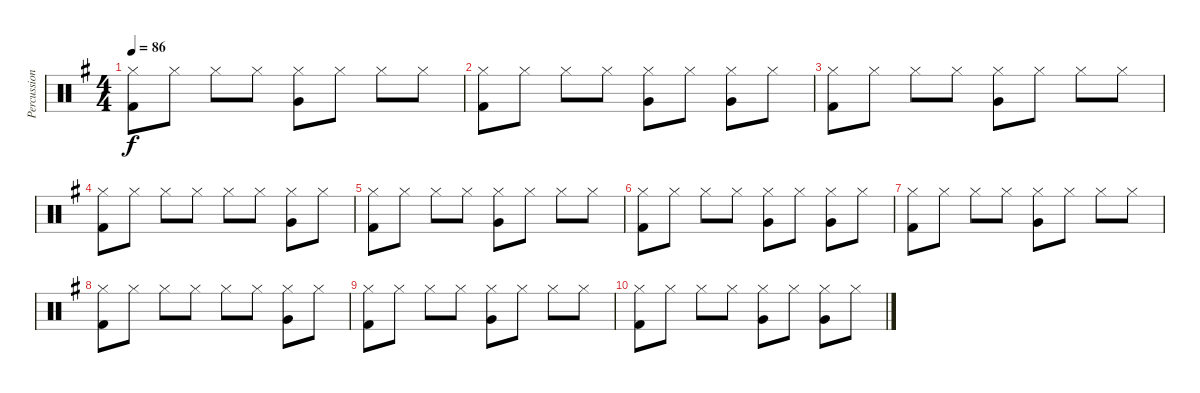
\track ("Percussions" "Percussion") {instrument percussion}
\staff {score}
\articulation defaults
\ts (4 4)
\tempo 86
\clef neutral
\ks g
("Hi-Hat (closed)" "Kick (hit) 2").8{dy f} "Hi-Hat (closed)".8 "Hi-Hat (closed)".8 "Hi-Hat (closed)".8 ("Hi-Hat (closed)" "Very Low Tom (hit)").8 "Hi-Hat (closed)".8 "Hi-Hat (closed)".8 "Hi-Hat (closed)".8 |
("Hi-Hat (closed)" "Kick (hit) 2").8 "Hi-Hat (closed)".8 "Hi-Hat (closed)".8 "Hi-Hat (closed)".8 ("Hi-Hat (closed)" "Very Low Tom (hit)").8 "Hi-Hat (closed)".8 ("Hi-Hat (closed)" "Very Low Tom (hit)").8 "Hi-Hat (closed)".8 |
("Hi-Hat (closed)" "Kick (hit) 2").8 "Hi-Hat (closed)".8 "Hi-Hat (closed)".8 "Hi-Hat (closed)".8 ("Hi-Hat (closed)" "Very Low Tom (hit)").8 "Hi-Hat (closed)".8 "Hi-Hat (closed)".8 "Hi-Hat (closed)".8 |
("Hi-Hat (closed)" "Kick (hit) 2").8 "Hi-Hat (closed)".8 "Hi-Hat (closed)".8 "Hi-Hat (closed)".8 "Hi-Hat (closed)".8 "Hi-Hat (closed)".8 ("Hi-Hat (closed)" "Very Low Tom (hit)").8 "Hi-Hat (closed)".8 |
("Hi-Hat (closed)" "Kick (hit) 2").8 "Hi-Hat (closed)".8 "Hi-Hat (closed)".8 "Hi-Hat (closed)".8 ("Hi-Hat (closed)" "Very Low Tom (hit)").8 "Hi-Hat (closed)".8 "Hi-Hat (closed)".8 "Hi-Hat (closed)".8 |
("Hi-Hat (closed)" "Kick (hit) 2").8 "Hi-Hat (closed)".8 "Hi-Hat (closed)".8 "Hi-Hat (closed)".8 ("Hi-Hat (closed)" "Very Low Tom (hit)").8 "Hi-Hat (closed)".8 ("Hi-Hat (closed)" "Very Low Tom (hit)").8 "Hi-Hat (closed)".8 |
("Hi-Hat (closed)" "Kick (hit) 2").8 "Hi-Hat (closed)".8 "Hi-Hat (closed)".8 "Hi-Hat (closed)".8 ("Hi-Hat (closed)" "Very Low Tom (hit)").8 "Hi-Hat (closed)".8 "Hi-Hat (closed)".8 "Hi-Hat (closed)".8 |
("Hi-Hat (closed)" "Kick (hit) 2").8 "Hi-Hat (closed)".8 "Hi-Hat (closed)".8 "Hi-Hat (closed)".8 "Hi-Hat (closed)".8 "Hi-Hat (closed)".8 ("Hi-Hat (closed)" "Very Low Tom (hit)").8 "Hi-Hat (closed)".8 |
("Hi-Hat (closed)" "Kick (hit) 2").8 "Hi-Hat (closed)".8 "Hi-Hat (closed)".8 "Hi-Hat (closed)".8 ("Hi-Hat (closed)" "Very Low Tom (hit)").8 "Hi-Hat (closed)".8 "Hi-Hat (closed)".8 "Hi-Hat (closed)".8 |
("Hi-Hat (closed)" "Kick (hit) 2").8 "Hi-Hat (closed)".8 "Hi-Hat (closed)".8 "Hi-Hat (closed)".8 ("Hi-Hat (closed)" "Very Low Tom (hit)").8 "Hi-Hat (closed)".8 ("Hi-Hat (closed)" "Very Low Tom (hit)").8 "Hi-Hat (closed)".8
